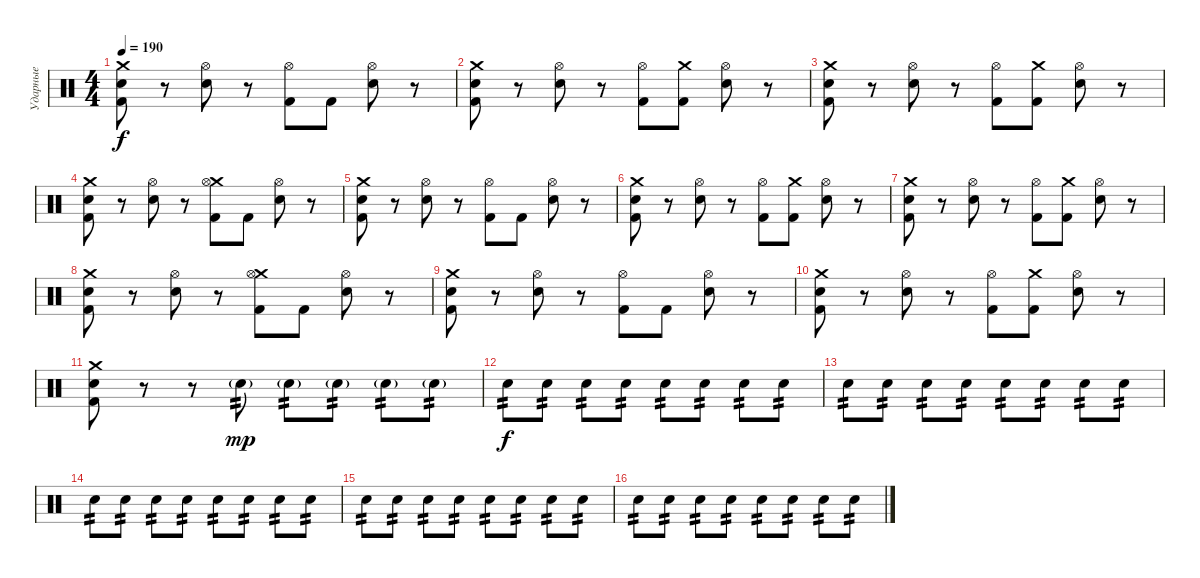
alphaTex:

\track ("Ударные" "Ударные") {instrument percussion}
\staff {score}
\articulation defaults
\ts (4 4)
\tempo 190
\clef neutral
\ks c
("Crash medium (hit)" "Electric Snare (hit)" "Kick (hit) 2").8{dy f} r.8 ("Electric Snare (hit)" "Hi-Hat (open)").8 r.8 ("Kick (hit) 2" "Hi-Hat (open)").8 "Kick (hit) 2".8 ("Electric Snare (hit)" "Hi-Hat (open)").8 r.8 |
("Crash medium (hit)" "Electric Snare (hit)" "Kick (hit) 2").8 r.8 ("Electric Snare (hit)" "Hi-Hat (open)").8 r.8 ("Kick (hit) 2" "Hi-Hat (open)").8 ("Kick (hit) 2" "Crash medium (hit)").8 ("Electric Snare (hit)" "Hi-Hat (open)").8 r.8 |
("Crash medium (hit)" "Electric Snare (hit)" "Kick (hit) 2").8 r.8 ("Electric Snare (hit)" "Hi-Hat (open)").8 r.8 ("Kick (hit) 2" "Hi-Hat (open)").8 ("Kick (hit) 2" "Crash medium (hit)").8 ("Electric Snare (hit)" "Hi-Hat (open)").8 r.8 |
("Crash medium (hit)" "Electric Snare (hit)" "Kick (hit) 2").8 r.8 ("Electric Snare (hit)" "Hi-Hat (open)").8 r.8 ("Kick (hit) 2" "Crash medium (hit)" "Hi-Hat (open)").8 "Kick (hit) 2".8 ("Electric Snare (hit)" "Hi-Hat (open)").8 r.8 |
("Crash medium (hit)" "Electric Snare (hit)" "Kick (hit) 2").8 r.8 ("Electric Snare (hit)" "Hi-Hat (open)").8 r.8 ("Kick (hit) 2" "Hi-Hat (open)").8 "Kick (hit) 2".8 ("Electric Snare (hit)" "Hi-Hat (open)").8 r.8 |
("Crash medium (hit)" "Electric Snare (hit)" "Kick (hit) 2").8 r.8 ("Electric Snare (hit)" "Hi-Hat (open)").8 r.8 ("Kick (hit) 2" "Hi-Hat (open)").8 ("Kick (hit) 2" "Crash medium (hit)").8 ("Electric Snare (hit)" "Hi-Hat (open)").8 r.8 |
("Crash medium (hit)" "Electric Snare (hit)" "Kick (hit) 2").8 r.8 ("Electric Snare (hit)" "Hi-Hat (open)").8 r.8 ("Kick (hit) 2" "Hi-Hat (open)").8 ("Kick (hit) 2" "Crash medium (hit)").8 ("Electric Snare (hit)" "Hi-Hat (open)").8 r.8 |
("Crash medium (hit)" "Electric Snare (hit)" "Kick (hit) 2").8 r.8 ("Electric Snare (hit)" "Hi-Hat (open)").8 r.8 ("Kick (hit) 2" "Crash medium (hit)" "Hi-Hat (open)").8 "Kick (hit) 2".8 ("Electric Snare (hit)" "Hi-Hat (open)").8 r.8 |
("Crash medium (hit)" "Electric Snare (hit)" "Kick (hit) 2").8 r.8 ("Electric Snare (hit)" "Hi-Hat (open)").8 r.8 ("Kick (hit) 2" "Hi-Hat (open)").8 "Kick (hit) 2".8 ("Electric Snare (hit)" "Hi-Hat (open)").8 r.8 |
("Crash medium (hit)" "Electric Snare (hit)" "Kick (hit) 2").8 r.8 ("Electric Snare (hit)" "Hi-Hat (open)").8 r.8 ("Kick (hit) 2" "Hi-Hat (open)").8 ("Kick (hit) 2" "Crash medium (hit)").8 ("Electric Snare (hit)" "Hi-Hat (open)").8 r.8 |
("Crash medium (hit)" "Electric Snare (hit)" "Kick (hit) 2").8 r.8 r.8 "Electric Snare (hit)"{g}.8{tp 2 dy mp} "Electric Snare (hit)"{g}.8{tp 2} "Electric Snare (hit)"{g}.8{tp 2} "Electric Snare (hit)"{g}.8{tp 2} "Electric Snare (hit)"{g}.8{tp 2} |
"Electric Snare (hit)".8{tp 2 dy f} "Electric Snare (hit)".8{tp 2} "Electric Snare (hit)".8{tp 2} "Electric Snare (hit)".8{tp 2} "Electric Snare (hit)".8{tp 2} "Electric Snare (hit)".8{tp 2} "Electric Snare (hit)".8{tp 2} "Electric Snare (hit)".8{tp 2} |
"Electric Snare (hit)".8{tp 2} "Electric Snare (hit)".8{tp 2} "Electric Snare (hit)".8{tp 2} "Electric Snare (hit)".8{tp 2} "Electric Snare (hit)".8{tp 2} "Electric Snare (hit)".8{tp 2} "Electric Snare (hit)".8{tp 2} "Electric Snare (hit)".8{tp 2} |
"Electric Snare (hit)".8{tp 2} "Electric Snare (hit)".8{tp 2} "Electric Snare (hit)".8{tp 2} "Electric Snare (hit)".8{tp 2} "Electric Snare (hit)".8{tp 2} "Electric Snare (hit)".8{tp 2} "Electric Snare (hit)".8{tp 2} "Electric Snare (hit)".8{tp 2} |
"Electric Snare (hit)".8{tp 2} "Electric Snare (hit)".8{tp 2} "Electric Snare (hit)".8{tp 2} "Electric Snare (hit)".8{tp 2} "Electric Snare (hit)".8{tp 2} "Electric Snare (hit)".8{tp 2} "Electric Snare (hit)".8{tp 2} "Electric Snare (hit)".8{tp 2} |
"Electric Snare (hit)".8{tp 2} "Electric Snare (hit)".8{tp 2} "Electric Snare (hit)".8{tp 2} "Electric Snare (hit)".8{tp 2} "Electric Snare (hit)".8{tp 2} "Electric Snare (hit)".8{tp 2} "Electric Snare (hit)".8{tp 2} "Electric Snare (hit)".8{tp 2}
